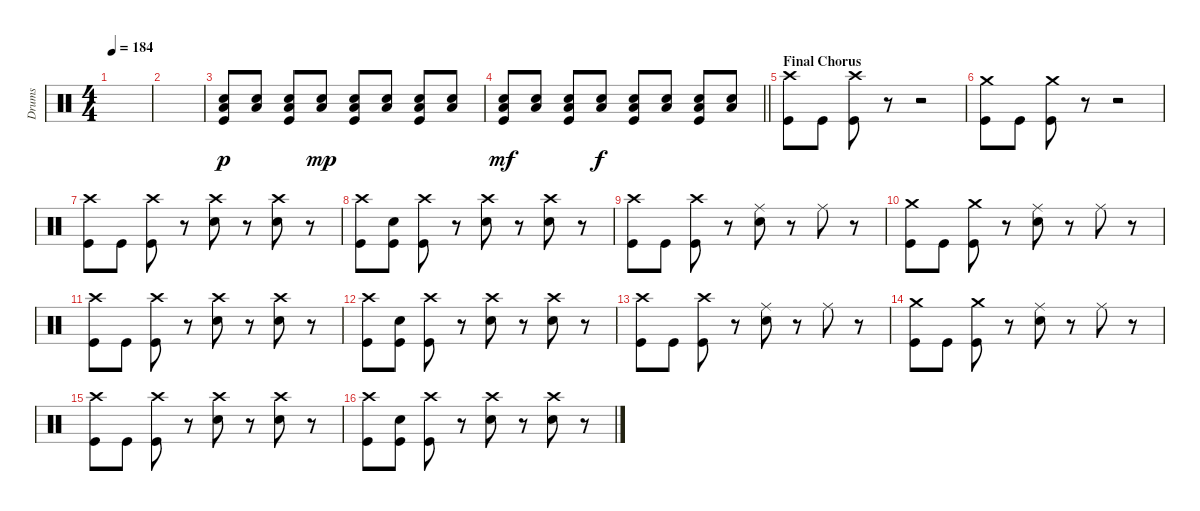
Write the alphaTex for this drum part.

\track ("Drums" "Drums") {instrument percussion}
\staff {score}
\articulation defaults
\ts (4 4)
\tempo 184
\clef neutral
\ks c
|
|
("Low Tom (hit)" "Electric Snare (hit)" "Kick (hit)").8{dy p} ("Low Tom (hit)" "Electric Snare (hit)").8 ("Low Tom (hit)" "Electric Snare (hit)" "Kick (hit)").8 ("Low Tom (hit)" "Electric Snare (hit)").8{dy mp} ("Low Tom (hit)" "Electric Snare (hit)" "Kick (hit)").8 ("Low Tom (hit)" "Electric Snare (hit)").8 ("Low Tom (hit)" "Electric Snare (hit)" "Kick (hit)").8 ("Low Tom (hit)" "Electric Snare (hit)").8 |
\barLineRight lightlight
("Low Tom (hit)" "Electric Snare (hit)" "Kick (hit)").8{dy mf} ("Low Tom (hit)" "Electric Snare (hit)").8 ("Low Tom (hit)" "Electric Snare (hit)" "Kick (hit)").8 ("Low Tom (hit)" "Electric Snare (hit)").8{dy f} ("Low Tom (hit)" "Electric Snare (hit)" "Kick (hit)").8 ("Low Tom (hit)" "Electric Snare (hit)").8 ("Low Tom (hit)" "Electric Snare (hit)" "Kick (hit)").8 ("Low Tom (hit)" "Electric Snare (hit)").8 |
\section ("" "Final Chorus")
("Crash high (hit)" "Kick (hit)").8 "Kick (hit)".8 ("Crash high (hit)" "Kick (hit)").8 r.8 r.2 |
("Crash medium (hit)" "Kick (hit)").8 "Kick (hit)".8 ("Crash medium (hit)" "Kick (hit)").8 r.8 r.2 |
("Crash high (hit)" "Kick (hit)").8 "Kick (hit)".8 ("Crash high (hit)" "Kick (hit)").8 r.8 ("Crash high (hit)" "Electric Snare (hit)").8 r.8 ("Crash high (hit)" "Electric Snare (hit)").8 r.8 |
("Crash high (hit)" "Kick (hit)").8 ("Electric Snare (hit)" "Kick (hit)").8 ("Crash high (hit)" "Kick (hit)").8 r.8 ("Crash high (hit)" "Electric Snare (hit)").8 r.8 ("Crash high (hit)" "Electric Snare (hit)").8 r.8 |
("Crash high (hit)" "Kick (hit)").8 "Kick (hit)".8 ("Crash high (hit)" "Kick (hit)").8 r.8 ("Ride (middle)" "Electric Snare (hit)").8 r.8 "Ride (middle)".8 r.8 |
("Crash medium (hit)" "Kick (hit)").8 "Kick (hit)".8 ("Crash medium (hit)" "Kick (hit)").8 r.8 ("Ride (middle)" "Electric Snare (hit)").8 r.8 "Ride (middle)".8 r.8 |
("Crash high (hit)" "Kick (hit)").8 "Kick (hit)".8 ("Crash high (hit)" "Kick (hit)").8 r.8 ("Crash high (hit)" "Electric Snare (hit)").8 r.8 ("Crash high (hit)" "Electric Snare (hit)").8 r.8 |
("Crash high (hit)" "Kick (hit)").8 ("Electric Snare (hit)" "Kick (hit)").8 ("Crash high (hit)" "Kick (hit)").8 r.8 ("Crash high (hit)" "Electric Snare (hit)").8 r.8 ("Crash high (hit)" "Electric Snare (hit)").8 r.8 |
("Crash high (hit)" "Kick (hit)").8 "Kick (hit)".8 ("Crash high (hit)" "Kick (hit)").8 r.8 ("Ride (middle)" "Electric Snare (hit)").8 r.8 "Ride (middle)".8 r.8 |
("Crash medium (hit)" "Kick (hit)").8 "Kick (hit)".8 ("Crash medium (hit)" "Kick (hit)").8 r.8 ("Ride (middle)" "Electric Snare (hit)").8 r.8 "Ride (middle)".8 r.8 |
("Crash high (hit)" "Kick (hit)").8 "Kick (hit)".8 ("Crash high (hit)" "Kick (hit)").8 r.8 ("Crash high (hit)" "Electric Snare (hit)").8 r.8 ("Crash high (hit)" "Electric Snare (hit)").8 r.8 |
("Crash high (hit)" "Kick (hit)").8 ("Electric Snare (hit)" "Kick (hit)").8 ("Crash high (hit)" "Kick (hit)").8 r.8 ("Crash high (hit)" "Electric Snare (hit)").8 r.8 ("Crash high (hit)" "Electric Snare (hit)").8 r.8
